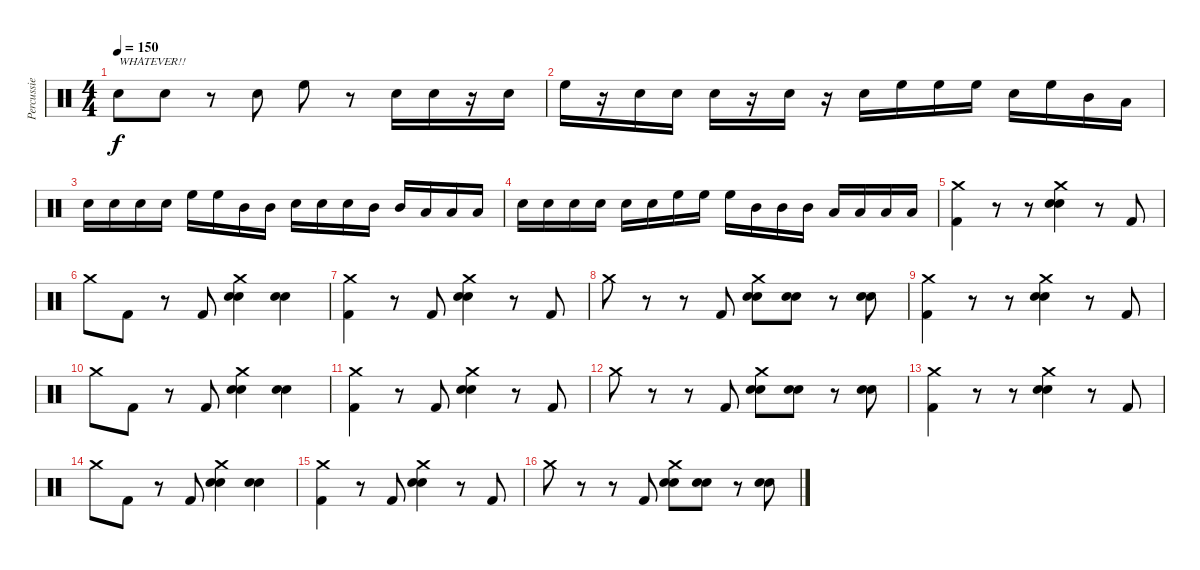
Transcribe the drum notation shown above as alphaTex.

\track ("Percussie" "Percussie") {instrument percussion}
\staff {score}
\articulation defaults
\ts (4 4)
\tempo 150
\clef neutral
\ks c "Snare (hit) 2".8{txt "WHATEVER!!" dy f} "Snare (hit) 2".8
r.8 "Snare (hit) 2".8 "High Floor Tom (hit)".8 r.8 "Snare (hit) 2".16 "Snare (hit) 2".16 r.16 "Snare (hit) 2".16 |
"High Floor Tom (hit)".16 r.16 "Snare (hit) 2".16 "Snare (hit) 2".16 "Snare (hit) 2".16 r.16 "Snare (hit) 2".16 r.16 "Snare (hit) 2".16 "High Floor Tom (hit)".16 "High Floor Tom (hit)".16 "High Floor Tom (hit)".16 "Snare (hit) 2".16 "High Floor Tom (hit)".16 "Mid Tom (hit)".16 "Low Tom (hit)".16 |
"Snare (hit) 2".16 "Snare (hit) 2".16 "Snare (hit) 2".16 "Snare (hit) 2".16 "High Floor Tom (hit)".16 "High Floor Tom (hit)".16 "Mid Tom (hit)".16 "Mid Tom (hit)".16 "Snare (hit) 2".16 "Snare (hit) 2".16 "Snare (hit) 2".16 "Mid Tom (hit)".16 "Mid Tom (hit)".16 "Low Tom (hit)".16 "Low Tom (hit)".16 "Low Tom (hit)".16 |
"Snare (hit) 2".16 "Snare (hit) 2".16 "Snare (hit) 2".16 "Snare (hit) 2".16 "Snare (hit) 2".16 "Snare (hit) 2".16 "High Floor Tom (hit)".16 "High Floor Tom (hit)".16 "High Floor Tom (hit)".16 "Mid Tom (hit)".16 "Mid Tom (hit)".16 "Mid Tom (hit)".16 "Low Tom (hit)".16 "Low Tom (hit)".16 "Low Tom (hit)".16 "Low Tom (hit)".16 |
("Crash medium (hit)" "Kick (hit) 2").4 r.8 r.8 ("Crash medium (hit)" "Electric Snare (hit)" "Snare (hit) 2").4 r.8 "Kick (hit) 2".8 |
"Crash medium (hit)".8 "Kick (hit) 2".8 r.8 "Kick (hit) 2".8 ("Crash medium (hit)" "Electric Snare (hit)" "Snare (hit) 2").4 ("Electric Snare (hit)" "Snare (hit) 2").4 |
("Crash medium (hit)" "Kick (hit) 2").4 r.8 "Kick (hit) 2".8 ("Crash medium (hit)" "Electric Snare (hit)" "Snare (hit) 2").4 r.8 "Kick (hit) 2".8 |
"Crash medium (hit)".8 r.8 r.8 "Kick (hit) 2".8 ("Crash medium (hit)" "Electric Snare (hit)" "Snare (hit) 2").8 ("Electric Snare (hit)" "Snare (hit) 2").8 r.8 ("Electric Snare (hit)" "Snare (hit) 2").8 |
("Crash medium (hit)" "Kick (hit) 2").4 r.8 r.8 ("Crash medium (hit)" "Electric Snare (hit)" "Snare (hit) 2").4 r.8 "Kick (hit) 2".8 |
"Crash medium (hit)".8 "Kick (hit) 2".8 r.8 "Kick (hit) 2".8 ("Crash medium (hit)" "Electric Snare (hit)" "Snare (hit) 2").4 ("Electric Snare (hit)" "Snare (hit) 2").4 |
("Crash medium (hit)" "Kick (hit) 2").4 r.8 "Kick (hit) 2".8 ("Crash medium (hit)" "Electric Snare (hit)" "Snare (hit) 2").4 r.8 "Kick (hit) 2".8 |
"Crash medium (hit)".8 r.8 r.8 "Kick (hit) 2".8 ("Crash medium (hit)" "Electric Snare (hit)" "Snare (hit) 2").8 ("Electric Snare (hit)" "Snare (hit) 2").8 r.8 ("Electric Snare (hit)" "Snare (hit) 2").8 |
("Crash medium (hit)" "Kick (hit) 2").4 r.8 r.8 ("Crash medium (hit)" "Electric Snare (hit)" "Snare (hit) 2").4 r.8 "Kick (hit) 2".8 |
"Crash medium (hit)".8 "Kick (hit) 2".8 r.8 "Kick (hit) 2".8 ("Crash medium (hit)" "Electric Snare (hit)" "Snare (hit) 2").4 ("Electric Snare (hit)" "Snare (hit) 2").4 |
("Crash medium (hit)" "Kick (hit) 2").4 r.8 "Kick (hit) 2".8 ("Crash medium (hit)" "Electric Snare (hit)" "Snare (hit) 2").4 r.8 "Kick (hit) 2".8 |
"Crash medium (hit)".8 r.8 r.8 "Kick (hit) 2".8 ("Crash medium (hit)" "Electric Snare (hit)" "Snare (hit) 2").8 ("Electric Snare (hit)" "Snare (hit) 2").8 r.8 ("Electric Snare (hit)" "Snare (hit) 2").8
